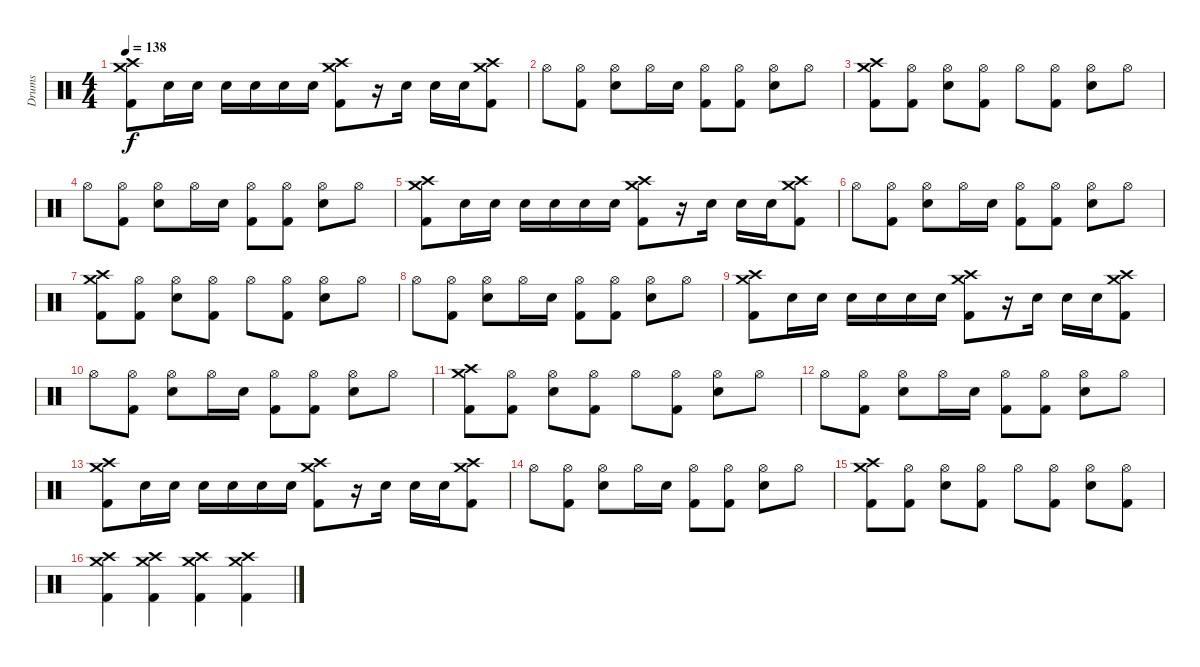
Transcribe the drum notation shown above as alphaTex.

\track ("Drums" "Drums") {instrument percussion}
\staff {score}
\articulation defaults
\ts (4 4)
\tempo 138
\clef neutral
\ks c
("Crash medium (hit)" "Crash high (hit)" "Kick (hit) 2").8{dy f} "Electric Snare (hit)".16 "Electric Snare (hit)".16 "Electric Snare (hit)".16 "Electric Snare (hit)".16 "Electric Snare (hit)".16 "Electric Snare (hit)".16 ("Crash medium (hit)" "Crash high (hit)" "Kick (hit) 2").8 r.16 "Electric Snare (hit)".16 "Electric Snare (hit)".16 "Electric Snare (hit)".16 ("Crash medium (hit)" "Crash high (hit)" "Kick (hit) 2").8 |
"Hi-Hat (open)".8 ("Hi-Hat (open)" "Kick (hit) 2").8 ("Hi-Hat (open)" "Electric Snare (hit)").8 "Hi-Hat (open)".16 "Electric Snare (hit)".16 ("Hi-Hat (open)" "Kick (hit) 2").8 ("Hi-Hat (open)" "Kick (hit) 2").8 ("Hi-Hat (open)" "Electric Snare (hit)").8 "Hi-Hat (open)".8 |
("Crash medium (hit)" "Crash high (hit)" "Kick (hit) 2").8 ("Hi-Hat (open)" "Kick (hit) 2").8 ("Hi-Hat (open)" "Electric Snare (hit)").8 ("Hi-Hat (open)" "Kick (hit) 2").8 "Hi-Hat (open)".8 ("Hi-Hat (open)" "Kick (hit) 2").8 ("Hi-Hat (open)" "Electric Snare (hit)").8 "Hi-Hat (open)".8 |
"Hi-Hat (open)".8 ("Hi-Hat (open)" "Kick (hit) 2").8 ("Hi-Hat (open)" "Electric Snare (hit)").8 "Hi-Hat (open)".16 "Electric Snare (hit)".16 ("Hi-Hat (open)" "Kick (hit) 2").8 ("Hi-Hat (open)" "Kick (hit) 2").8 ("Hi-Hat (open)" "Electric Snare (hit)").8 "Hi-Hat (open)".8 |
("Crash medium (hit)" "Crash high (hit)" "Kick (hit) 2").8 "Electric Snare (hit)".16 "Electric Snare (hit)".16 "Electric Snare (hit)".16 "Electric Snare (hit)".16 "Electric Snare (hit)".16 "Electric Snare (hit)".16 ("Crash medium (hit)" "Crash high (hit)" "Kick (hit) 2").8 r.16 "Electric Snare (hit)".16 "Electric Snare (hit)".16 "Electric Snare (hit)".16 ("Crash medium (hit)" "Crash high (hit)" "Kick (hit) 2").8 |
"Hi-Hat (open)".8 ("Hi-Hat (open)" "Kick (hit) 2").8 ("Hi-Hat (open)" "Electric Snare (hit)").8 "Hi-Hat (open)".16 "Electric Snare (hit)".16 ("Hi-Hat (open)" "Kick (hit) 2").8 ("Hi-Hat (open)" "Kick (hit) 2").8 ("Hi-Hat (open)" "Electric Snare (hit)").8 "Hi-Hat (open)".8 |
("Crash medium (hit)" "Crash high (hit)" "Kick (hit) 2").8 ("Hi-Hat (open)" "Kick (hit) 2").8 ("Hi-Hat (open)" "Electric Snare (hit)").8 ("Hi-Hat (open)" "Kick (hit) 2").8 "Hi-Hat (open)".8 ("Hi-Hat (open)" "Kick (hit) 2").8 ("Hi-Hat (open)" "Electric Snare (hit)").8 "Hi-Hat (open)".8 |
"Hi-Hat (open)".8 ("Hi-Hat (open)" "Kick (hit) 2").8 ("Hi-Hat (open)" "Electric Snare (hit)").8 "Hi-Hat (open)".16 "Electric Snare (hit)".16 ("Hi-Hat (open)" "Kick (hit) 2").8 ("Hi-Hat (open)" "Kick (hit) 2").8 ("Hi-Hat (open)" "Electric Snare (hit)").8 "Hi-Hat (open)".8 |
("Crash medium (hit)" "Crash high (hit)" "Kick (hit) 2").8 "Electric Snare (hit)".16 "Electric Snare (hit)".16 "Electric Snare (hit)".16 "Electric Snare (hit)".16 "Electric Snare (hit)".16 "Electric Snare (hit)".16 ("Crash medium (hit)" "Crash high (hit)" "Kick (hit) 2").8 r.16 "Electric Snare (hit)".16 "Electric Snare (hit)".16 "Electric Snare (hit)".16 ("Crash medium (hit)" "Crash high (hit)" "Kick (hit) 2").8 |
"Hi-Hat (open)".8 ("Hi-Hat (open)" "Kick (hit) 2").8 ("Hi-Hat (open)" "Electric Snare (hit)").8 "Hi-Hat (open)".16 "Electric Snare (hit)".16 ("Hi-Hat (open)" "Kick (hit) 2").8 ("Hi-Hat (open)" "Kick (hit) 2").8 ("Hi-Hat (open)" "Electric Snare (hit)").8 "Hi-Hat (open)".8 |
("Crash medium (hit)" "Crash high (hit)" "Kick (hit) 2").8 ("Hi-Hat (open)" "Kick (hit) 2").8 ("Hi-Hat (open)" "Electric Snare (hit)").8 ("Hi-Hat (open)" "Kick (hit) 2").8 "Hi-Hat (open)".8 ("Hi-Hat (open)" "Kick (hit) 2").8 ("Hi-Hat (open)" "Electric Snare (hit)").8 "Hi-Hat (open)".8 |
"Hi-Hat (open)".8 ("Hi-Hat (open)" "Kick (hit) 2").8 ("Hi-Hat (open)" "Electric Snare (hit)").8 "Hi-Hat (open)".16 "Electric Snare (hit)".16 ("Hi-Hat (open)" "Kick (hit) 2").8 ("Hi-Hat (open)" "Kick (hit) 2").8 ("Hi-Hat (open)" "Electric Snare (hit)").8 "Hi-Hat (open)".8 |
("Crash medium (hit)" "Crash high (hit)" "Kick (hit) 2").8 "Electric Snare (hit)".16 "Electric Snare (hit)".16 "Electric Snare (hit)".16 "Electric Snare (hit)".16 "Electric Snare (hit)".16 "Electric Snare (hit)".16 ("Crash medium (hit)" "Crash high (hit)" "Kick (hit) 2").8 r.16 "Electric Snare (hit)".16 "Electric Snare (hit)".16 "Electric Snare (hit)".16 ("Crash medium (hit)" "Crash high (hit)" "Kick (hit) 2").8 |
"Hi-Hat (open)".8 ("Hi-Hat (open)" "Kick (hit) 2").8 ("Hi-Hat (open)" "Electric Snare (hit)").8 "Hi-Hat (open)".16 "Electric Snare (hit)".16 ("Hi-Hat (open)" "Kick (hit) 2").8 ("Hi-Hat (open)" "Kick (hit) 2").8 ("Hi-Hat (open)" "Electric Snare (hit)").8 "Hi-Hat (open)".8 |
("Crash medium (hit)" "Crash high (hit)" "Kick (hit) 2").8 ("Hi-Hat (open)" "Kick (hit) 2").8 ("Hi-Hat (open)" "Electric Snare (hit)").8 ("Hi-Hat (open)" "Kick (hit) 2").8 "Hi-Hat (open)".8 ("Hi-Hat (open)" "Kick (hit) 2").8 ("Hi-Hat (open)" "Electric Snare (hit)").8 ("Hi-Hat (open)" "Kick (hit) 2").8 |
("Crash medium (hit)" "Crash high (hit)" "Kick (hit) 2").4 ("Crash medium (hit)" "Crash high (hit)" "Kick (hit) 2").4 ("Crash medium (hit)" "Crash high (hit)" "Kick (hit) 2").4 ("Crash medium (hit)" "Crash high (hit)" "Kick (hit) 2").4
